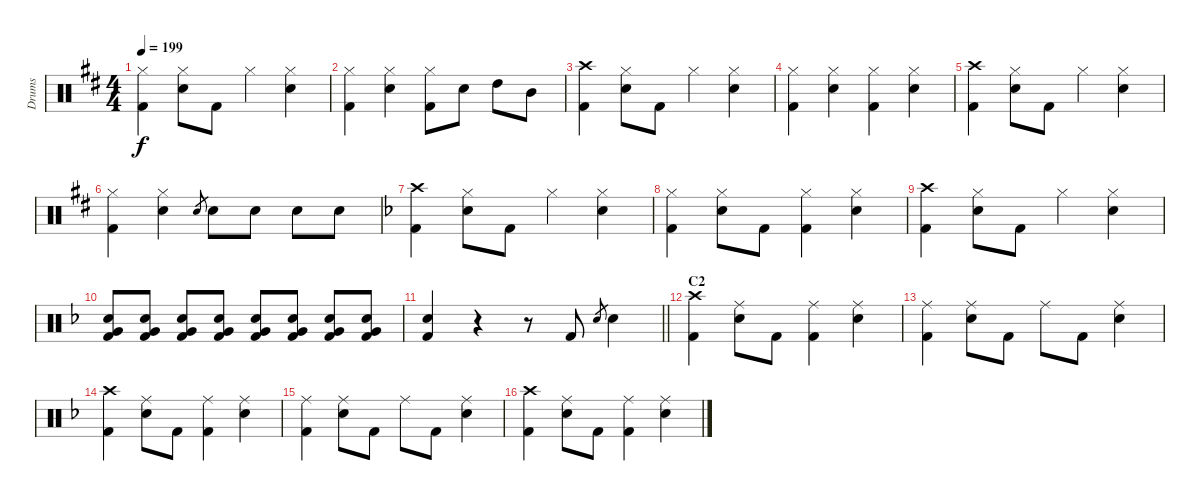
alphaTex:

\track ("Drums" "Drums") {instrument percussion}
\staff {score}
\articulation defaults
\ts (4 4)
\tempo 199
\clef neutral
\ks d
("Hi-Hat (closed)" "Kick (hit) 2").4{dy f} ("Hi-Hat (closed)" "Snare (hit) 2").8 "Kick (hit) 2".8 "Hi-Hat (closed)".4 ("Hi-Hat (closed)" "Snare (hit) 2").4 |
("Hi-Hat (closed)" "Kick (hit) 2").4 ("Hi-Hat (closed)" "Snare (hit) 2").4 ("Hi-Hat (closed)" "Kick (hit) 2").8 "Snare (hit) 2".8 "High Tom (hit)".8 "Mid Tom (hit)".8 |
("Crash high (hit)" "Kick (hit) 2").4 ("Hi-Hat (closed)" "Snare (hit) 2").8 "Kick (hit) 2".8 "Hi-Hat (closed)".4 ("Hi-Hat (closed)" "Snare (hit) 2").4 |
("Hi-Hat (closed)" "Kick (hit) 2").4 ("Hi-Hat (closed)" "Snare (hit) 2").4 ("Hi-Hat (closed)" "Kick (hit) 2").4 ("Hi-Hat (closed)" "Snare (hit) 2").4 |
("Crash high (hit)" "Kick (hit) 2").4 ("Hi-Hat (closed)" "Snare (hit) 2").8 "Kick (hit) 2".8 "Hi-Hat (closed)".4 ("Hi-Hat (closed)" "Snare (hit) 2").4 |
("Hi-Hat (closed)" "Kick (hit) 2").4 ("Hi-Hat (closed)" "Snare (hit) 2").4 "Snare (hit) 2".8{gr} "Snare (hit) 2".8 "Snare (hit) 2".8 "Snare (hit) 2".8 "Snare (hit) 2".8 |
\ks f
("Crash high (hit)" "Kick (hit) 2").4 ("Hi-Hat (closed)" "Snare (hit) 2").8 "Kick (hit) 2".8 "Hi-Hat (closed)".4 ("Hi-Hat (closed)" "Snare (hit) 2").4 |
("Hi-Hat (closed)" "Kick (hit) 2").4 ("Hi-Hat (closed)" "Snare (hit) 2").8 "Kick (hit) 2".8 ("Hi-Hat (closed)" "Kick (hit) 2").4 ("Hi-Hat (closed)" "Snare (hit) 2").4 |
("Crash high (hit)" "Kick (hit) 2").4 ("Hi-Hat (closed)" "Snare (hit) 2").8 "Kick (hit) 2".8 "Hi-Hat (closed)".4 ("Hi-Hat (closed)" "Snare (hit) 2").4 |
("Snare (hit) 2" "Very Low Tom (hit)" "Kick (hit) 2").8{volume 0} ("Snare (hit) 2" "Very Low Tom (hit)" "Kick (hit) 2").8{volume 10} ("Snare (hit) 2" "Very Low Tom (hit)" "Kick (hit) 2").8 ("Snare (hit) 2" "Very Low Tom (hit)" "Kick (hit) 2").8 ("Snare (hit) 2" "Very Low Tom (hit)" "Kick (hit) 2").8 ("Snare (hit) 2" "Very Low Tom (hit)" "Kick (hit) 2").8 ("Snare (hit) 2" "Very Low Tom (hit)" "Kick (hit) 2").8 ("Snare (hit) 2" "Very Low Tom (hit)" "Kick (hit) 2").8 |
\barLineRight lightlight
("Snare (hit) 2" "Kick (hit) 2").4{volume 12} r.4 r.8 "Kick (hit) 2".8 "Snare (hit) 2".8{gr} "Snare (hit) 2".4 |
\section ("" "C2")
("Crash high (hit)" "Kick (hit) 2").4 ("Ride (middle)" "Snare (hit) 2").8 "Kick (hit) 2".8 ("Ride (middle)" "Kick (hit) 2").4 ("Ride (middle)" "Snare (hit) 2").4 |
("Ride (middle)" "Kick (hit) 2").4 ("Ride (middle)" "Snare (hit) 2").8 "Kick (hit) 2".8 "Ride (middle)".8 "Kick (hit) 2".8 ("Ride (middle)" "Snare (hit) 2").4 |
("Crash high (hit)" "Kick (hit) 2").4 ("Ride (middle)" "Snare (hit) 2").8 "Kick (hit) 2".8 ("Ride (middle)" "Kick (hit) 2").4 ("Ride (middle)" "Snare (hit) 2").4 |
("Ride (middle)" "Kick (hit) 2").4 ("Ride (middle)" "Snare (hit) 2").8 "Kick (hit) 2".8 "Ride (middle)".8 "Kick (hit) 2".8 ("Ride (middle)" "Snare (hit) 2").4 |
("Crash high (hit)" "Kick (hit) 2").4 ("Ride (middle)" "Snare (hit) 2").8 "Kick (hit) 2".8 ("Ride (middle)" "Kick (hit) 2").4 ("Ride (middle)" "Snare (hit) 2").4
